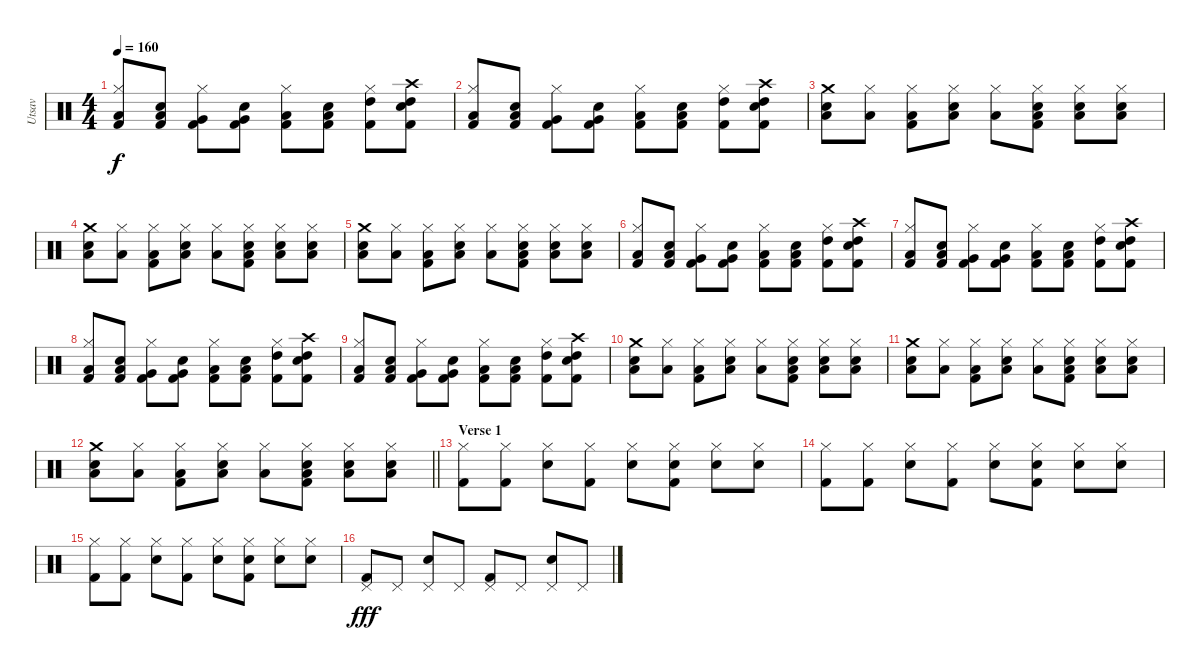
\track ("Utsav" "Utsav") {instrument percussion}
\staff {score}
\articulation defaults
\ts (4 4)
\tempo 160
\clef neutral
\ks c
("Low Tom (hit)" "Hi-Hat (closed)" "Kick (hit) 2").8{dy f} ("Low Tom (hit)" "Snare (hit) 2" "Kick (hit) 2").8 ("Very Low Tom (hit)" "Hi-Hat (closed)" "Kick (hit) 2").8 ("Very Low Tom (hit)" "Snare (hit) 2" "Kick (hit) 2").8 ("Low Floor Tom (hit)" "Hi-Hat (closed)" "Kick (hit) 2").8 ("Low Floor Tom (hit)" "Snare (hit) 2" "Kick (hit) 2").8 ("High Tom (hit)" "Hi-Hat (closed)" "Kick (hit) 2").8 ("High Tom (hit)" "Crash high (hit)" "Snare (hit) 2" "Kick (hit) 2").8 |
("Low Tom (hit)" "Hi-Hat (closed)" "Kick (hit) 2").8 ("Low Tom (hit)" "Snare (hit) 2" "Kick (hit) 2").8 ("Very Low Tom (hit)" "Hi-Hat (closed)" "Kick (hit) 2").8 ("Very Low Tom (hit)" "Snare (hit) 2" "Kick (hit) 2").8 ("Low Floor Tom (hit)" "Hi-Hat (closed)" "Kick (hit) 2").8 ("Low Floor Tom (hit)" "Snare (hit) 2" "Kick (hit) 2").8 ("High Tom (hit)" "Hi-Hat (closed)" "Kick (hit) 2").8 ("High Tom (hit)" "Crash high (hit)" "Snare (hit) 2" "Kick (hit) 2").8 |
("Crash medium (hit)" "Low Floor Tom (hit)" "Snare (hit) 2").8 ("Low Floor Tom (hit)" "Hi-Hat (closed)").8 ("Low Floor Tom (hit)" "Hi-Hat (closed)" "Kick (hit) 2").8 ("Low Floor Tom (hit)" "Hi-Hat (closed)" "Snare (hit) 2").8 ("Low Floor Tom (hit)" "Hi-Hat (closed)").8 ("Low Floor Tom (hit)" "Hi-Hat (closed)" "Snare (hit) 2" "Kick (hit) 2").8 ("Low Floor Tom (hit)" "Hi-Hat (closed)" "Snare (hit) 2").8 ("Low Floor Tom (hit)" "Hi-Hat (closed)" "Snare (hit) 2").8 |
("Crash medium (hit)" "Low Floor Tom (hit)" "Snare (hit) 2").8 ("Low Floor Tom (hit)" "Hi-Hat (closed)").8 ("Low Floor Tom (hit)" "Hi-Hat (closed)" "Kick (hit) 2").8 ("Low Floor Tom (hit)" "Hi-Hat (closed)" "Snare (hit) 2").8 ("Low Floor Tom (hit)" "Hi-Hat (closed)").8 ("Low Floor Tom (hit)" "Hi-Hat (closed)" "Snare (hit) 2" "Kick (hit) 2").8 ("Low Floor Tom (hit)" "Hi-Hat (closed)" "Snare (hit) 2").8 ("Low Floor Tom (hit)" "Hi-Hat (closed)" "Snare (hit) 2").8 |
("Crash medium (hit)" "Low Floor Tom (hit)" "Snare (hit) 2").8 ("Low Floor Tom (hit)" "Hi-Hat (closed)").8 ("Low Floor Tom (hit)" "Hi-Hat (closed)" "Kick (hit) 2").8 ("Low Floor Tom (hit)" "Hi-Hat (closed)" "Snare (hit) 2").8 ("Low Floor Tom (hit)" "Hi-Hat (closed)").8 ("Low Floor Tom (hit)" "Hi-Hat (closed)" "Snare (hit) 2" "Kick (hit) 2").8 ("Low Floor Tom (hit)" "Hi-Hat (closed)" "Snare (hit) 2").8 ("Low Floor Tom (hit)" "Hi-Hat (closed)" "Snare (hit) 2").8 |
("Low Tom (hit)" "Hi-Hat (closed)" "Kick (hit) 2").8 ("Low Tom (hit)" "Snare (hit) 2" "Kick (hit) 2").8 ("Very Low Tom (hit)" "Hi-Hat (closed)" "Kick (hit) 2").8 ("Very Low Tom (hit)" "Snare (hit) 2" "Kick (hit) 2").8 ("Low Floor Tom (hit)" "Hi-Hat (closed)" "Kick (hit) 2").8 ("Low Floor Tom (hit)" "Snare (hit) 2" "Kick (hit) 2").8 ("High Tom (hit)" "Hi-Hat (closed)" "Kick (hit) 2").8 ("High Tom (hit)" "Crash high (hit)" "Snare (hit) 2" "Kick (hit) 2").8 |
("Low Tom (hit)" "Hi-Hat (closed)" "Kick (hit) 2").8 ("Low Tom (hit)" "Snare (hit) 2" "Kick (hit) 2").8 ("Very Low Tom (hit)" "Hi-Hat (closed)" "Kick (hit) 2").8 ("Very Low Tom (hit)" "Snare (hit) 2" "Kick (hit) 2").8 ("Low Floor Tom (hit)" "Hi-Hat (closed)" "Kick (hit) 2").8 ("Low Floor Tom (hit)" "Snare (hit) 2" "Kick (hit) 2").8 ("High Tom (hit)" "Hi-Hat (closed)" "Kick (hit) 2").8 ("High Tom (hit)" "Crash high (hit)" "Snare (hit) 2" "Kick (hit) 2").8 |
("Low Tom (hit)" "Hi-Hat (closed)" "Kick (hit) 2").8 ("Low Tom (hit)" "Snare (hit) 2" "Kick (hit) 2").8 ("Very Low Tom (hit)" "Hi-Hat (closed)" "Kick (hit) 2").8 ("Very Low Tom (hit)" "Snare (hit) 2" "Kick (hit) 2").8 ("Low Floor Tom (hit)" "Hi-Hat (closed)" "Kick (hit) 2").8 ("Low Floor Tom (hit)" "Snare (hit) 2" "Kick (hit) 2").8 ("High Tom (hit)" "Hi-Hat (closed)" "Kick (hit) 2").8 ("High Tom (hit)" "Crash high (hit)" "Snare (hit) 2" "Kick (hit) 2").8 |
("Low Tom (hit)" "Hi-Hat (closed)" "Kick (hit) 2").8 ("Low Tom (hit)" "Snare (hit) 2" "Kick (hit) 2").8 ("Very Low Tom (hit)" "Hi-Hat (closed)" "Kick (hit) 2").8 ("Very Low Tom (hit)" "Snare (hit) 2" "Kick (hit) 2").8 ("Low Floor Tom (hit)" "Hi-Hat (closed)" "Kick (hit) 2").8 ("Low Floor Tom (hit)" "Snare (hit) 2" "Kick (hit) 2").8 ("High Tom (hit)" "Hi-Hat (closed)" "Kick (hit) 2").8 ("High Tom (hit)" "Crash high (hit)" "Snare (hit) 2" "Kick (hit) 2").8 |
("Crash medium (hit)" "Low Floor Tom (hit)" "Snare (hit) 2").8 ("Low Floor Tom (hit)" "Hi-Hat (closed)").8 ("Low Floor Tom (hit)" "Hi-Hat (closed)" "Kick (hit) 2").8 ("Low Floor Tom (hit)" "Hi-Hat (closed)" "Snare (hit) 2").8 ("Low Floor Tom (hit)" "Hi-Hat (closed)").8 ("Low Floor Tom (hit)" "Hi-Hat (closed)" "Snare (hit) 2" "Kick (hit) 2").8 ("Low Floor Tom (hit)" "Hi-Hat (closed)" "Snare (hit) 2").8 ("Low Floor Tom (hit)" "Hi-Hat (closed)" "Snare (hit) 2").8 |
("Crash medium (hit)" "Low Floor Tom (hit)" "Snare (hit) 2").8 ("Low Floor Tom (hit)" "Hi-Hat (closed)").8 ("Low Floor Tom (hit)" "Hi-Hat (closed)" "Kick (hit) 2").8 ("Low Floor Tom (hit)" "Hi-Hat (closed)" "Snare (hit) 2").8 ("Low Floor Tom (hit)" "Hi-Hat (closed)").8 ("Low Floor Tom (hit)" "Hi-Hat (closed)" "Snare (hit) 2" "Kick (hit) 2").8 ("Low Floor Tom (hit)" "Hi-Hat (closed)" "Snare (hit) 2").8 ("Low Floor Tom (hit)" "Hi-Hat (closed)" "Snare (hit) 2").8 |
\barLineRight lightlight
("Crash medium (hit)" "Low Floor Tom (hit)" "Snare (hit) 2").8 ("Low Floor Tom (hit)" "Hi-Hat (closed)").8 ("Low Floor Tom (hit)" "Hi-Hat (closed)" "Kick (hit) 2").8 ("Low Floor Tom (hit)" "Hi-Hat (closed)" "Snare (hit) 2").8 ("Low Floor Tom (hit)" "Hi-Hat (closed)").8 ("Low Floor Tom (hit)" "Hi-Hat (closed)" "Snare (hit) 2" "Kick (hit) 2").8 ("Low Floor Tom (hit)" "Hi-Hat (closed)" "Snare (hit) 2").8 ("Low Floor Tom (hit)" "Hi-Hat (closed)" "Snare (hit) 2").8 |
\section ("" "Verse 1")
("Hi-Hat (closed)" "Kick (hit) 2").8 ("Hi-Hat (closed)" "Kick (hit) 2").8 ("Hi-Hat (closed)" "Electric Snare (hit)").8 ("Hi-Hat (closed)" "Kick (hit) 2").8 ("Hi-Hat (closed)" "Electric Snare (hit)").8 ("Hi-Hat (closed)" "Snare (hit) 2" "Kick (hit) 2").8 ("Hi-Hat (closed)" "Snare (hit) 2").8 ("Hi-Hat (closed)" "Snare (hit) 2").8 |
("Hi-Hat (closed)" "Kick (hit) 2").8 ("Hi-Hat (closed)" "Kick (hit) 2").8 ("Hi-Hat (closed)" "Electric Snare (hit)").8 ("Hi-Hat (closed)" "Kick (hit) 2").8 ("Hi-Hat (closed)" "Electric Snare (hit)").8 ("Hi-Hat (closed)" "Snare (hit) 2" "Kick (hit) 2").8 ("Hi-Hat (closed)" "Snare (hit) 2").8 ("Hi-Hat (closed)" "Snare (hit) 2").8 |
("Hi-Hat (closed)" "Kick (hit) 2").8 ("Hi-Hat (closed)" "Kick (hit) 2").8 ("Hi-Hat (closed)" "Electric Snare (hit)").8 ("Hi-Hat (closed)" "Kick (hit) 2").8 ("Hi-Hat (closed)" "Electric Snare (hit)").8 ("Hi-Hat (closed)" "Snare (hit) 2" "Kick (hit) 2").8 ("Hi-Hat (closed)" "Snare (hit) 2").8 ("Hi-Hat (closed)" "Snare (hit) 2").8 |
("Pedal Hi-Hat (hit)" "Kick (hit) 2").8{dy fff} "Pedal Hi-Hat (hit)".8 ("Pedal Hi-Hat (hit)" "Electric Snare (hit)").8 "Pedal Hi-Hat (hit)".8 ("Pedal Hi-Hat (hit)" "Kick (hit) 2").8 "Pedal Hi-Hat (hit)".8 ("Pedal Hi-Hat (hit)" "Electric Snare (hit)").8 "Pedal Hi-Hat (hit)".8
